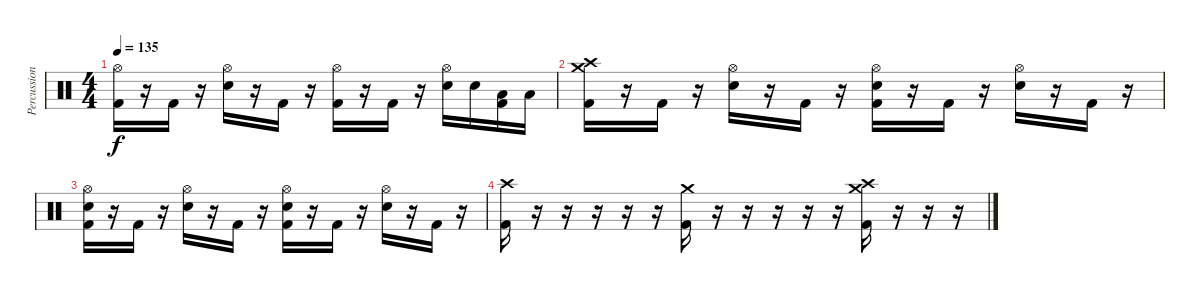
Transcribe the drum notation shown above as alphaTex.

\track ("Percussion" "Percussion") {instrument percussion}
\staff {score}
\articulation defaults
\ts (4 4)
\tempo 135
\clef neutral
\ks c
("Hi-Hat (open)" "Kick (hit) 2").16{dy f} r.16 "Kick (hit) 2".16 r.16 ("Hi-Hat (open)" "Snare (hit) 2").16 r.16 "Kick (hit) 2".16 r.16 ("Hi-Hat (open)" "Kick (hit) 2").16 r.16 "Kick (hit) 2".16 r.16 ("Hi-Hat (open)" "Snare (hit) 2").16 "Snare (hit) 2".16 ("Low Tom (hit)" "Kick (hit) 2").16 "Low Tom (hit)".16 |
("Crash medium (hit)" "Crash high (hit)" "Kick (hit) 2").16 r.16 "Kick (hit) 2".16 r.16 ("Hi-Hat (open)" "Snare (hit) 2").16 r.16 "Kick (hit) 2".16 r.16 ("Hi-Hat (open)" "Snare (hit) 2" "Kick (hit) 2").16 r.16 "Kick (hit) 2".16 r.16 ("Hi-Hat (open)" "Snare (hit) 2").16 r.16 "Kick (hit) 2".16 r.16 |
("Hi-Hat (open)" "Snare (hit) 2" "Kick (hit) 2").16 r.16 "Kick (hit) 2".16 r.16 ("Hi-Hat (open)" "Snare (hit) 2").16 r.16 "Kick (hit) 2".16 r.16 ("Hi-Hat (open)" "Snare (hit) 2" "Kick (hit) 2").16 r.16 "Kick (hit) 2".16 r.16 ("Hi-Hat (open)" "Snare (hit) 2").16 r.16 "Kick (hit) 2".16 r.16 |
("Crash high (hit)" "Kick (hit) 2").16 r.16 r.16 r.16 r.16 r.16 ("Crash medium (hit)" "Kick (hit) 2").16 r.16 r.16 r.16 r.16 r.16 ("Crash high (hit)" "Crash medium (hit)" "Kick (hit) 2").16 r.16 r.16 r.16
